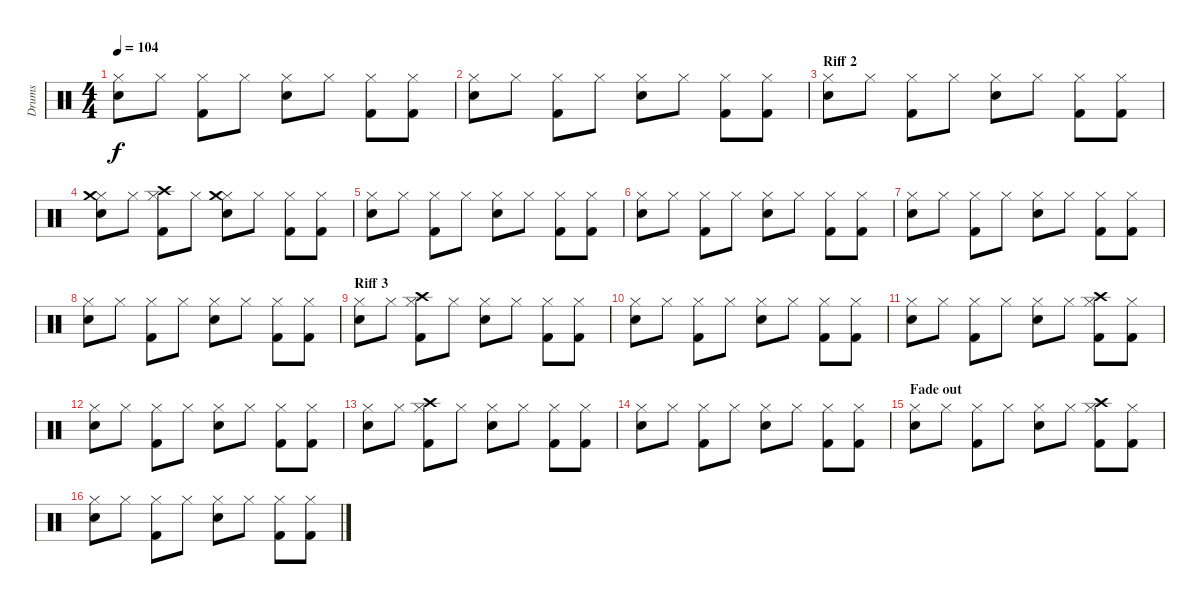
\track ("Drums" "Drums") {instrument percussion}
\staff {score}
\articulation defaults
\ts (4 4)
\tempo 104
\clef neutral
\ks c
("Hi-Hat (closed)" "Snare (hit) 2").8{dy f} "Hi-Hat (closed)".8 ("Hi-Hat (closed)" "Kick (hit) 2").8 "Hi-Hat (closed)".8 ("Hi-Hat (closed)" "Snare (hit) 2").8 "Hi-Hat (closed)".8 ("Hi-Hat (closed)" "Kick (hit) 2").8 ("Hi-Hat (closed)" "Kick (hit) 2").8 |
("Hi-Hat (closed)" "Snare (hit) 2").8 "Hi-Hat (closed)".8 ("Hi-Hat (closed)" "Kick (hit) 2").8 "Hi-Hat (closed)".8 ("Hi-Hat (closed)" "Snare (hit) 2").8 "Hi-Hat (closed)".8 ("Hi-Hat (closed)" "Kick (hit) 2").8 ("Hi-Hat (closed)" "Kick (hit) 2").8 |
\section ("" "Riff 2")
("Hi-Hat (closed)" "Snare (hit) 2").8 "Hi-Hat (closed)".8 ("Hi-Hat (closed)" "Kick (hit) 2").8 "Hi-Hat (closed)".8 ("Hi-Hat (closed)" "Snare (hit) 2").8 "Hi-Hat (closed)".8 ("Hi-Hat (closed)" "Kick (hit) 2").8 ("Hi-Hat (closed)" "Kick (hit) 2").8 |
("Hi-Hat (closed)" "Snare (hit) 2" "Crash medium (hit)").8 "Hi-Hat (closed)".8 ("Hi-Hat (closed)" "Kick (hit) 2" "Crash high (hit)").8 "Hi-Hat (closed)".8 ("Hi-Hat (closed)" "Snare (hit) 2" "Crash medium (hit)").8 "Hi-Hat (closed)".8 ("Hi-Hat (closed)" "Kick (hit) 2").8 ("Hi-Hat (closed)" "Kick (hit) 2").8 |
("Hi-Hat (closed)" "Snare (hit) 2").8 "Hi-Hat (closed)".8 ("Hi-Hat (closed)" "Kick (hit) 2").8 "Hi-Hat (closed)".8 ("Hi-Hat (closed)" "Snare (hit) 2").8 "Hi-Hat (closed)".8 ("Hi-Hat (closed)" "Kick (hit) 2").8 ("Hi-Hat (closed)" "Kick (hit) 2").8 |
("Hi-Hat (closed)" "Snare (hit) 2").8 "Hi-Hat (closed)".8 ("Hi-Hat (closed)" "Kick (hit) 2").8 "Hi-Hat (closed)".8 ("Hi-Hat (closed)" "Snare (hit) 2").8 "Hi-Hat (closed)".8 ("Hi-Hat (closed)" "Kick (hit) 2").8 ("Hi-Hat (closed)" "Kick (hit) 2").8 |
("Hi-Hat (closed)" "Snare (hit) 2").8 "Hi-Hat (closed)".8 ("Hi-Hat (closed)" "Kick (hit) 2").8 "Hi-Hat (closed)".8 ("Hi-Hat (closed)" "Snare (hit) 2").8 "Hi-Hat (closed)".8 ("Hi-Hat (closed)" "Kick (hit) 2").8 ("Hi-Hat (closed)" "Kick (hit) 2").8 |
("Hi-Hat (closed)" "Snare (hit) 2").8 "Hi-Hat (closed)".8 ("Hi-Hat (closed)" "Kick (hit) 2").8 "Hi-Hat (closed)".8 ("Hi-Hat (closed)" "Snare (hit) 2").8 "Hi-Hat (closed)".8 ("Hi-Hat (closed)" "Kick (hit) 2").8 ("Hi-Hat (closed)" "Kick (hit) 2").8 |
\section ("" "Riff 3")
("Hi-Hat (closed)" "Snare (hit) 2").8 "Hi-Hat (closed)".8 ("Hi-Hat (closed)" "Kick (hit) 2" "Crash high (hit)").8 "Hi-Hat (closed)".8 ("Hi-Hat (closed)" "Snare (hit) 2").8 "Hi-Hat (closed)".8 ("Hi-Hat (closed)" "Kick (hit) 2").8 ("Hi-Hat (closed)" "Kick (hit) 2").8 |
("Hi-Hat (closed)" "Snare (hit) 2").8 "Hi-Hat (closed)".8 ("Hi-Hat (closed)" "Kick (hit) 2").8 "Hi-Hat (closed)".8 ("Hi-Hat (closed)" "Snare (hit) 2").8 "Hi-Hat (closed)".8 ("Hi-Hat (closed)" "Kick (hit) 2").8 ("Hi-Hat (closed)" "Kick (hit) 2").8 |
("Hi-Hat (closed)" "Snare (hit) 2").8 "Hi-Hat (closed)".8 ("Hi-Hat (closed)" "Kick (hit) 2").8 "Hi-Hat (closed)".8 ("Hi-Hat (closed)" "Snare (hit) 2").8 "Hi-Hat (closed)".8 ("Hi-Hat (closed)" "Kick (hit) 2" "Crash high (hit)").8 ("Hi-Hat (closed)" "Kick (hit) 2").8 |
("Hi-Hat (closed)" "Snare (hit) 2").8 "Hi-Hat (closed)".8 ("Hi-Hat (closed)" "Kick (hit) 2").8 "Hi-Hat (closed)".8 ("Hi-Hat (closed)" "Snare (hit) 2").8 "Hi-Hat (closed)".8 ("Hi-Hat (closed)" "Kick (hit) 2").8 ("Hi-Hat (closed)" "Kick (hit) 2").8 |
("Hi-Hat (closed)" "Snare (hit) 2").8 "Hi-Hat (closed)".8 ("Hi-Hat (closed)" "Kick (hit) 2" "Crash high (hit)").8 "Hi-Hat (closed)".8 ("Hi-Hat (closed)" "Snare (hit) 2").8 "Hi-Hat (closed)".8 ("Hi-Hat (closed)" "Kick (hit) 2").8 ("Hi-Hat (closed)" "Kick (hit) 2").8 |
("Hi-Hat (closed)" "Snare (hit) 2").8 "Hi-Hat (closed)".8 ("Hi-Hat (closed)" "Kick (hit) 2").8 "Hi-Hat (closed)".8 ("Hi-Hat (closed)" "Snare (hit) 2").8 "Hi-Hat (closed)".8 ("Hi-Hat (closed)" "Kick (hit) 2").8 ("Hi-Hat (closed)" "Kick (hit) 2").8 |
\section ("" "Fade out")
("Hi-Hat (closed)" "Snare (hit) 2").8 "Hi-Hat (closed)".8 ("Hi-Hat (closed)" "Kick (hit) 2").8 "Hi-Hat (closed)".8 ("Hi-Hat (closed)" "Snare (hit) 2").8 "Hi-Hat (closed)".8 ("Hi-Hat (closed)" "Kick (hit) 2" "Crash high (hit)").8 ("Hi-Hat (closed)" "Kick (hit) 2").8 |
("Hi-Hat (closed)" "Snare (hit) 2").8 "Hi-Hat (closed)".8 ("Hi-Hat (closed)" "Kick (hit) 2").8 "Hi-Hat (closed)".8 ("Hi-Hat (closed)" "Snare (hit) 2").8 "Hi-Hat (closed)".8 ("Hi-Hat (closed)" "Kick (hit) 2").8 ("Hi-Hat (closed)" "Kick (hit) 2").8
